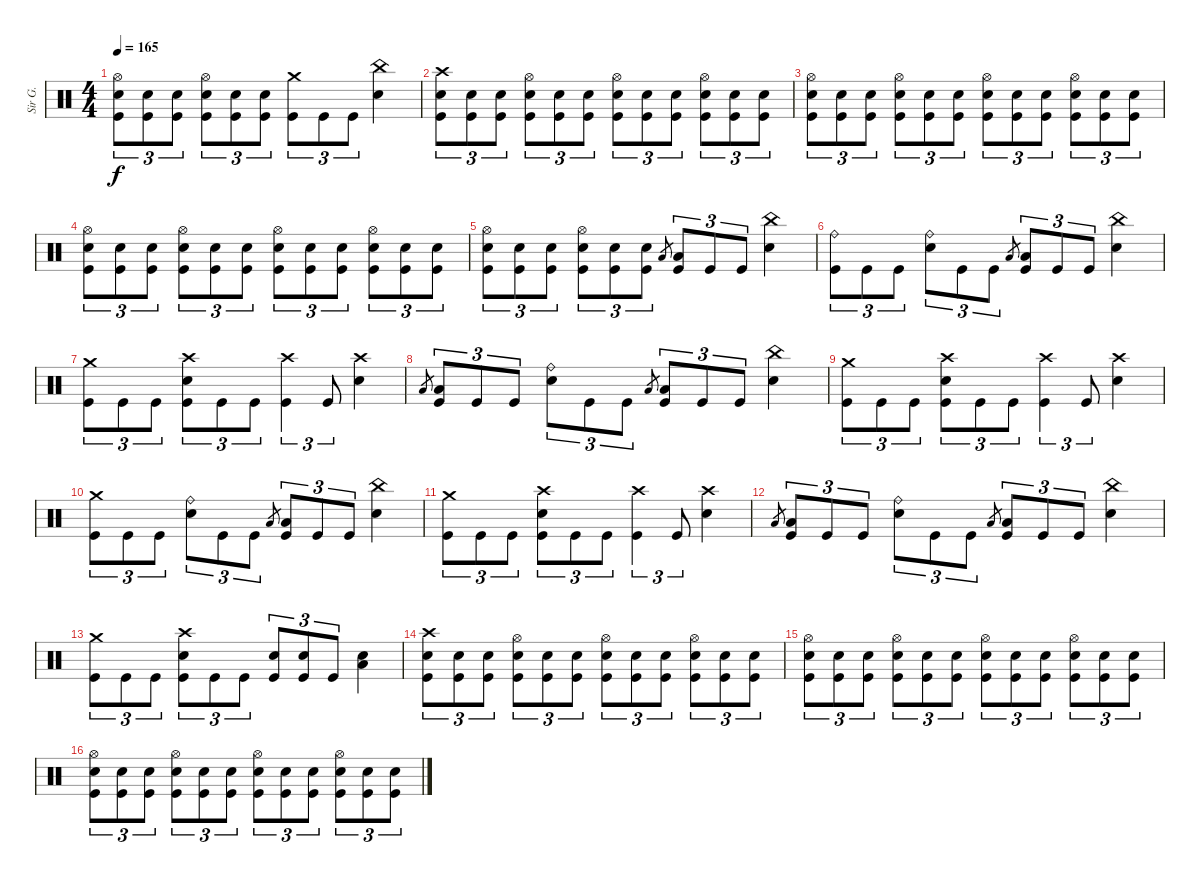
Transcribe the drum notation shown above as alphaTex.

\track ("Sir G." "Sir G.") {instrument percussion}
\staff {score}
\articulation defaults
\ts (4 4)
\tempo 165
\clef neutral
\ks c
("Hi-Hat (open)" "Electric Snare (hit)" "Kick (hit)").8{tu (3 2) dy f} ("Electric Snare (hit)" "Kick (hit)").8{tu (3 2)} ("Electric Snare (hit)" "Kick (hit)").8{tu (3 2)} ("Hi-Hat (open)" "Electric Snare (hit)" "Kick (hit)").8{tu (3 2)} ("Electric Snare (hit)" "Kick (hit)").8{tu (3 2)} ("Electric Snare (hit)" "Kick (hit)").8{tu (3 2)} ("Crash medium (hit)" "Kick (hit)").8{tu (3 2)} "Kick (hit)".8{tu (3 2)} "Kick (hit)".8{tu (3 2)} ("China (hit)" "Electric Snare (hit)").4 |
("Crash high (hit)" "Electric Snare (hit)" "Kick (hit)").8{tu (3 2)} ("Electric Snare (hit)" "Kick (hit)").8{tu (3 2)} ("Electric Snare (hit)" "Kick (hit)").8{tu (3 2)} ("Hi-Hat (open)" "Electric Snare (hit)" "Kick (hit)").8{tu (3 2)} ("Electric Snare (hit)" "Kick (hit)").8{tu (3 2)} ("Electric Snare (hit)" "Kick (hit)").8{tu (3 2)} ("Hi-Hat (open)" "Electric Snare (hit)" "Kick (hit)").8{tu (3 2)} ("Electric Snare (hit)" "Kick (hit)").8{tu (3 2)} ("Electric Snare (hit)" "Kick (hit)").8{tu (3 2)} ("Hi-Hat (open)" "Electric Snare (hit)" "Kick (hit)").8{tu (3 2)} ("Electric Snare (hit)" "Kick (hit)").8{tu (3 2)} ("Electric Snare (hit)" "Kick (hit)").8{tu (3 2)} |
("Hi-Hat (open)" "Electric Snare (hit)" "Kick (hit)").8{tu (3 2)} ("Electric Snare (hit)" "Kick (hit)").8{tu (3 2)} ("Electric Snare (hit)" "Kick (hit)").8{tu (3 2)} ("Hi-Hat (open)" "Electric Snare (hit)" "Kick (hit)").8{tu (3 2)} ("Electric Snare (hit)" "Kick (hit)").8{tu (3 2)} ("Electric Snare (hit)" "Kick (hit)").8{tu (3 2)} ("Hi-Hat (open)" "Electric Snare (hit)" "Kick (hit)").8{tu (3 2)} ("Electric Snare (hit)" "Kick (hit)").8{tu (3 2)} ("Electric Snare (hit)" "Kick (hit)").8{tu (3 2)} ("Hi-Hat (open)" "Electric Snare (hit)" "Kick (hit)").8{tu (3 2)} ("Electric Snare (hit)" "Kick (hit)").8{tu (3 2)} ("Electric Snare (hit)" "Kick (hit)").8{tu (3 2)} |
("Hi-Hat (open)" "Electric Snare (hit)" "Kick (hit)").8{tu (3 2)} ("Electric Snare (hit)" "Kick (hit)").8{tu (3 2)} ("Electric Snare (hit)" "Kick (hit)").8{tu (3 2)} ("Hi-Hat (open)" "Electric Snare (hit)" "Kick (hit)").8{tu (3 2)} ("Electric Snare (hit)" "Kick (hit)").8{tu (3 2)} ("Electric Snare (hit)" "Kick (hit)").8{tu (3 2)} ("Hi-Hat (open)" "Electric Snare (hit)" "Kick (hit)").8{tu (3 2)} ("Electric Snare (hit)" "Kick (hit)").8{tu (3 2)} ("Electric Snare (hit)" "Kick (hit)").8{tu (3 2)} ("Hi-Hat (open)" "Electric Snare (hit)" "Kick (hit)").8{tu (3 2)} ("Electric Snare (hit)" "Kick (hit)").8{tu (3 2)} ("Electric Snare (hit)" "Kick (hit)").8{tu (3 2)} |
("Hi-Hat (open)" "Electric Snare (hit)" "Kick (hit)").8{tu (3 2)} ("Electric Snare (hit)" "Kick (hit)").8{tu (3 2)} ("Electric Snare (hit)" "Kick (hit)").8{tu (3 2)} ("Hi-Hat (open)" "Electric Snare (hit)" "Kick (hit)").8{tu (3 2)} ("Electric Snare (hit)" "Kick (hit)").8{tu (3 2)} ("Electric Snare (hit)" "Kick (hit)").8{tu (3 2)} "Low Tom (hit)".8{gr} ("Low Tom (hit)" "Kick (hit)").8{tu (3 2)} "Kick (hit)".8{tu (3 2)} "Kick (hit)".8{tu (3 2)} ("China (hit)" "Electric Snare (hit)").4 |
("Ride (bell)" "Kick (hit)").8{tu (3 2)} "Kick (hit)".8{tu (3 2)} "Kick (hit)".8{tu (3 2)} ("Ride (bell)" "Electric Snare (hit)").8{tu (3 2)} "Kick (hit)".8{tu (3 2)} "Kick (hit)".8{tu (3 2)} "Low Tom (hit)".8{gr} ("Low Tom (hit)" "Kick (hit)").8{tu (3 2)} "Kick (hit)".8{tu (3 2)} "Kick (hit)".8{tu (3 2)} ("China (hit)" "Electric Snare (hit)").4 |
("Crash medium (hit)" "Kick (hit)").8{tu (3 2)} "Kick (hit)".8{tu (3 2)} "Kick (hit)".8{tu (3 2)} ("Crash high (hit)" "Electric Snare (hit)" "Kick (hit)").8{tu (3 2)} "Kick (hit)".8{tu (3 2)} "Kick (hit)".8{tu (3 2)} ("Crash high (hit)" "Kick (hit)").4{tu (3 2)} "Kick (hit)".8{tu (3 2)} ("Crash high (hit)" "Electric Snare (hit)").4 |
"Low Tom (hit)".8{gr} ("Low Tom (hit)" "Kick (hit)").8{tu (3 2)} "Kick (hit)".8{tu (3 2)} "Kick (hit)".8{tu (3 2)} ("Ride (bell)" "Electric Snare (hit)").8{tu (3 2)} "Kick (hit)".8{tu (3 2)} "Kick (hit)".8{tu (3 2)} "Low Tom (hit)".8{gr} ("Low Tom (hit)" "Kick (hit)").8{tu (3 2)} "Kick (hit)".8{tu (3 2)} "Kick (hit)".8{tu (3 2)} ("China (hit)" "Electric Snare (hit)").4 |
("Crash medium (hit)" "Kick (hit)").8{tu (3 2)} "Kick (hit)".8{tu (3 2)} "Kick (hit)".8{tu (3 2)} ("Crash high (hit)" "Electric Snare (hit)" "Kick (hit)").8{tu (3 2)} "Kick (hit)".8{tu (3 2)} "Kick (hit)".8{tu (3 2)} ("Crash high (hit)" "Kick (hit)").4{tu (3 2)} "Kick (hit)".8{tu (3 2)} ("Crash high (hit)" "Electric Snare (hit)").4 |
("Crash medium (hit)" "Kick (hit)").8{tu (3 2)} "Kick (hit)".8{tu (3 2)} "Kick (hit)".8{tu (3 2)} ("Ride (bell)" "Electric Snare (hit)").8{tu (3 2)} "Kick (hit)".8{tu (3 2)} "Kick (hit)".8{tu (3 2)} "Low Tom (hit)".8{gr} ("Low Tom (hit)" "Kick (hit)").8{tu (3 2)} "Kick (hit)".8{tu (3 2)} "Kick (hit)".8{tu (3 2)} ("China (hit)" "Electric Snare (hit)").4 |
("Crash medium (hit)" "Kick (hit)").8{tu (3 2)} "Kick (hit)".8{tu (3 2)} "Kick (hit)".8{tu (3 2)} ("Crash high (hit)" "Electric Snare (hit)" "Kick (hit)").8{tu (3 2)} "Kick (hit)".8{tu (3 2)} "Kick (hit)".8{tu (3 2)} ("Crash high (hit)" "Kick (hit)").4{tu (3 2)} "Kick (hit)".8{tu (3 2)} ("Crash high (hit)" "Electric Snare (hit)").4 |
"Low Tom (hit)".8{gr} ("Low Tom (hit)" "Kick (hit)").8{tu (3 2)} "Kick (hit)".8{tu (3 2)} "Kick (hit)".8{tu (3 2)} ("Ride (bell)" "Electric Snare (hit)").8{tu (3 2)} "Kick (hit)".8{tu (3 2)} "Kick (hit)".8{tu (3 2)} "Low Tom (hit)".8{gr} ("Low Tom (hit)" "Kick (hit)").8{tu (3 2)} "Kick (hit)".8{tu (3 2)} "Kick (hit)".8{tu (3 2)} ("China (hit)" "Electric Snare (hit)").4 |
("Crash medium (hit)" "Kick (hit)").8{tu (3 2)} "Kick (hit)".8{tu (3 2)} "Kick (hit)".8{tu (3 2)} ("Crash high (hit)" "Electric Snare (hit)" "Kick (hit)").8{tu (3 2)} "Kick (hit)".8{tu (3 2)} "Kick (hit)".8{tu (3 2)} ("Electric Snare (hit)" "Kick (hit)").8{tu (3 2)} ("Electric Snare (hit)" "Kick (hit)").8{tu (3 2)} "Kick (hit)".8{tu (3 2)} ("Electric Snare (hit)" "Low Tom (hit)").4 |
("Crash high (hit)" "Electric Snare (hit)" "Kick (hit)").8{tu (3 2)} ("Electric Snare (hit)" "Kick (hit)").8{tu (3 2)} ("Electric Snare (hit)" "Kick (hit)").8{tu (3 2)} ("Hi-Hat (open)" "Electric Snare (hit)" "Kick (hit)").8{tu (3 2)} ("Electric Snare (hit)" "Kick (hit)").8{tu (3 2)} ("Electric Snare (hit)" "Kick (hit)").8{tu (3 2)} ("Hi-Hat (open)" "Electric Snare (hit)" "Kick (hit)").8{tu (3 2)} ("Electric Snare (hit)" "Kick (hit)").8{tu (3 2)} ("Electric Snare (hit)" "Kick (hit)").8{tu (3 2)} ("Hi-Hat (open)" "Electric Snare (hit)" "Kick (hit)").8{tu (3 2)} ("Electric Snare (hit)" "Kick (hit)").8{tu (3 2)} ("Electric Snare (hit)" "Kick (hit)").8{tu (3 2)} |
("Hi-Hat (open)" "Electric Snare (hit)" "Kick (hit)").8{tu (3 2)} ("Electric Snare (hit)" "Kick (hit)").8{tu (3 2)} ("Electric Snare (hit)" "Kick (hit)").8{tu (3 2)} ("Hi-Hat (open)" "Electric Snare (hit)" "Kick (hit)").8{tu (3 2)} ("Electric Snare (hit)" "Kick (hit)").8{tu (3 2)} ("Electric Snare (hit)" "Kick (hit)").8{tu (3 2)} ("Hi-Hat (open)" "Electric Snare (hit)" "Kick (hit)").8{tu (3 2)} ("Electric Snare (hit)" "Kick (hit)").8{tu (3 2)} ("Electric Snare (hit)" "Kick (hit)").8{tu (3 2)} ("Hi-Hat (open)" "Electric Snare (hit)" "Kick (hit)").8{tu (3 2)} ("Electric Snare (hit)" "Kick (hit)").8{tu (3 2)} ("Electric Snare (hit)" "Kick (hit)").8{tu (3 2)} |
("Hi-Hat (open)" "Electric Snare (hit)" "Kick (hit)").8{tu (3 2)} ("Electric Snare (hit)" "Kick (hit)").8{tu (3 2)} ("Electric Snare (hit)" "Kick (hit)").8{tu (3 2)} ("Hi-Hat (open)" "Electric Snare (hit)" "Kick (hit)").8{tu (3 2)} ("Electric Snare (hit)" "Kick (hit)").8{tu (3 2)} ("Electric Snare (hit)" "Kick (hit)").8{tu (3 2)} ("Hi-Hat (open)" "Electric Snare (hit)" "Kick (hit)").8{tu (3 2)} ("Electric Snare (hit)" "Kick (hit)").8{tu (3 2)} ("Electric Snare (hit)" "Kick (hit)").8{tu (3 2)} ("Hi-Hat (open)" "Electric Snare (hit)" "Kick (hit)").8{tu (3 2)} ("Electric Snare (hit)" "Kick (hit)").8{tu (3 2)} ("Electric Snare (hit)" "Kick (hit)").8{tu (3 2)}
